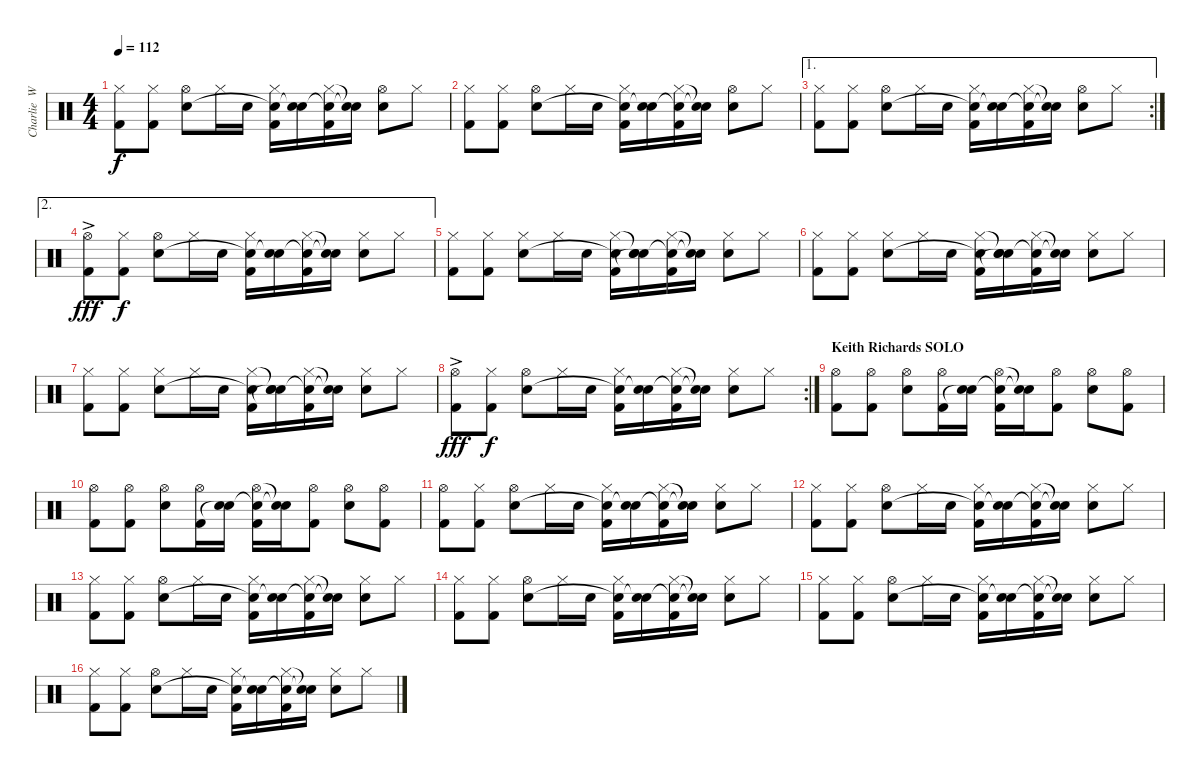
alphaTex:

\track ("Charlie  Watts" "Charlie  W") {instrument percussion}
\staff {score}
\articulation defaults
\ts (4 4)
\tempo 112
\clef neutral
\ks c
("Hi-Hat (closed)" "Kick (hit) 2").8{dy f} ("Hi-Hat (closed)" "Kick (hit) 2").8 ("Hi-Hat (open)" "Snare (hit) 2").8 "Hi-Hat (closed)".16 "Snare (hit) 2".16 ("Hi-Hat (closed)" "Snare (hit)"{t} "Kick (hit) 2").16 ("Snare (hit) 2" "Snare (hit)"{t}).16 ("Hi-Hat (closed)" "Snare (hit)"{t} "Kick (hit) 2").16 ("Snare (hit)"{t} "Snare (hit)"{t}).16 ("Hi-Hat (open)" "Snare (hit) 2").8 "Hi-Hat (closed)".8 |
("Hi-Hat (closed)" "Kick (hit) 2").8 ("Hi-Hat (closed)" "Kick (hit) 2").8 ("Hi-Hat (open)" "Snare (hit) 2").8 "Hi-Hat (closed)".16 "Snare (hit) 2".16 ("Hi-Hat (closed)" "Snare (hit)"{t} "Kick (hit) 2").16 ("Snare (hit) 2" "Snare (hit)"{t}).16 ("Hi-Hat (closed)" "Snare (hit)"{t} "Kick (hit) 2").16 ("Snare (hit)"{t} "Snare (hit)"{t}).16 ("Hi-Hat (open)" "Snare (hit) 2").8 "Hi-Hat (closed)".8 |
\ae 1
\rc 2
("Hi-Hat (closed)" "Kick (hit) 2").8 ("Hi-Hat (closed)" "Kick (hit) 2").8 ("Hi-Hat (open)" "Snare (hit) 2").8 "Hi-Hat (closed)".16 "Snare (hit) 2".16 ("Hi-Hat (closed)" "Snare (hit)"{t} "Kick (hit) 2").16 ("Snare (hit) 2" "Snare (hit)"{t}).16 ("Hi-Hat (closed)" "Snare (hit)"{t} "Kick (hit) 2").16 ("Snare (hit)"{t} "Snare (hit)"{t}).16 ("Hi-Hat (open)" "Snare (hit) 2").8 "Hi-Hat (closed)".8 |
\ae 2
("Hi-Hat (open)"{ac} "Kick (hit) 2"{ac}).8{dy fff} ("Hi-Hat (closed)" "Kick (hit) 2").8{dy f} ("Hi-Hat (open)" "Snare (hit) 2").8 "Hi-Hat (closed)".16 "Snare (hit) 2".16 ("Hi-Hat (closed)" "Snare (hit)"{t} "Kick (hit) 2").16 ("Snare (hit) 2" "Snare (hit)"{t}).16 ("Hi-Hat (closed)" "Snare (hit)"{t} "Kick (hit) 2").16 ("Snare (hit)"{t} "Snare (hit)"{t}).16 ("Hi-Hat (closed)" "Snare (hit) 2").8 "Hi-Hat (closed)".8 |
("Hi-Hat (closed)" "Kick (hit) 2").8 ("Hi-Hat (closed)" "Kick (hit) 2").8 ("Hi-Hat (closed)" "Snare (hit) 2").8 "Hi-Hat (closed)".16 "Snare (hit) 2".16 ("Hi-Hat (closed)" "Snare (hit)"{t} "Kick (hit) 2").16 ("Snare (hit)"{t} "Snare (hit) 2" "Snare (hit)"{t}).16 ("Hi-Hat (closed)" "Snare (hit)"{t} "Kick (hit) 2").16 ("Snare (hit)"{t} "Snare (hit)"{t}).16 ("Hi-Hat (closed)" "Snare (hit) 2").8 "Hi-Hat (closed)".8 |
("Hi-Hat (closed)" "Kick (hit) 2").8 ("Hi-Hat (closed)" "Kick (hit) 2").8 ("Hi-Hat (closed)" "Snare (hit) 2").8 "Hi-Hat (closed)".16 "Snare (hit) 2".16 ("Hi-Hat (closed)" "Snare (hit)"{t} "Kick (hit) 2").16 ("Snare (hit)"{t} "Snare (hit) 2" "Snare (hit)"{t}).16 ("Hi-Hat (closed)" "Snare (hit)"{t} "Kick (hit) 2").16 ("Snare (hit)"{t} "Snare (hit)"{t}).16 ("Hi-Hat (closed)" "Snare (hit) 2").8 "Hi-Hat (closed)".8 |
("Hi-Hat (closed)" "Kick (hit) 2").8 ("Hi-Hat (closed)" "Kick (hit) 2").8 ("Hi-Hat (closed)" "Snare (hit) 2").8 "Hi-Hat (closed)".16 "Snare (hit) 2".16 ("Hi-Hat (closed)" "Snare (hit)"{t} "Kick (hit) 2").16 ("Snare (hit)"{t} "Snare (hit) 2" "Snare (hit)"{t}).16 ("Hi-Hat (closed)" "Snare (hit)"{t} "Kick (hit) 2").16 ("Snare (hit)"{t} "Snare (hit)"{t}).16 ("Hi-Hat (closed)" "Snare (hit) 2").8 "Hi-Hat (closed)".8 |
\rc 2
("Hi-Hat (open)"{ac} "Kick (hit) 2"{ac}).8{dy fff} ("Hi-Hat (closed)" "Kick (hit) 2").8{dy f} ("Hi-Hat (open)" "Snare (hit) 2").8 "Hi-Hat (closed)".16 "Snare (hit) 2".16 ("Hi-Hat (closed)" "Snare (hit)"{t} "Kick (hit) 2").16 ("Snare (hit) 2" "Snare (hit)"{t}).16 ("Hi-Hat (closed)" "Snare (hit)"{t} "Kick (hit) 2").16 ("Snare (hit)"{t} "Snare (hit)"{t}).16 ("Hi-Hat (closed)" "Snare (hit) 2").8 "Hi-Hat (closed)".8 |
\section ("" "Keith Richards SOLO")
("Hi-Hat (open)" "Kick (hit) 2").8 ("Hi-Hat (open)" "Kick (hit) 2").8 ("Hi-Hat (open)" "Snare (hit) 2").8 ("Hi-Hat (open)" "Kick (hit) 2").16 ("Snare (hit) 2" "Snare (hit)"{t}).16 ("Hi-Hat (open)" "Snare (hit)"{t} "Kick (hit) 2").16 ("Snare (hit)"{t} "Snare (hit)"{t}).16 ("Hi-Hat (open)" "Kick (hit) 2").8 ("Hi-Hat (open)" "Snare (hit) 2").8 ("Hi-Hat (open)" "Kick (hit) 2").8 |
("Hi-Hat (open)" "Kick (hit) 2").8 ("Hi-Hat (open)" "Kick (hit) 2").8 ("Hi-Hat (open)" "Snare (hit) 2").8 ("Hi-Hat (open)" "Kick (hit) 2").16 ("Snare (hit) 2" "Snare (hit)"{t}).16 ("Hi-Hat (open)" "Snare (hit)"{t} "Kick (hit) 2").16 ("Snare (hit)"{t} "Snare (hit)"{t}).16 ("Hi-Hat (open)" "Kick (hit) 2").8 ("Hi-Hat (open)" "Snare (hit) 2").8 ("Hi-Hat (open)" "Kick (hit) 2").8 |
("Hi-Hat (open)" "Kick (hit) 2").8 ("Hi-Hat (closed)" "Kick (hit) 2").8 ("Hi-Hat (open)" "Snare (hit) 2").8 "Hi-Hat (closed)".16 "Snare (hit) 2".16 ("Hi-Hat (closed)" "Snare (hit)"{t} "Kick (hit) 2").16 ("Snare (hit) 2" "Snare (hit)"{t}).16 ("Hi-Hat (closed)" "Snare (hit)"{t} "Kick (hit) 2").16 ("Snare (hit)"{t} "Snare (hit)"{t}).16 ("Hi-Hat (closed)" "Snare (hit) 2").8 "Hi-Hat (closed)".8 |
("Hi-Hat (closed)" "Kick (hit) 2").8 ("Hi-Hat (closed)" "Kick (hit) 2").8 ("Hi-Hat (open)" "Snare (hit) 2").8 "Hi-Hat (closed)".16 "Snare (hit) 2".16 ("Hi-Hat (closed)" "Snare (hit)"{t} "Kick (hit) 2").16 ("Snare (hit) 2" "Snare (hit)"{t}).16 ("Hi-Hat (closed)" "Snare (hit)"{t} "Kick (hit) 2").16 ("Snare (hit)"{t} "Snare (hit)"{t}).16 ("Hi-Hat (closed)" "Snare (hit) 2").8 "Hi-Hat (closed)".8 |
("Hi-Hat (closed)" "Kick (hit) 2").8 ("Hi-Hat (closed)" "Kick (hit) 2").8 ("Hi-Hat (open)" "Snare (hit) 2").8 "Hi-Hat (closed)".16 "Snare (hit) 2".16 ("Hi-Hat (closed)" "Snare (hit)"{t} "Kick (hit) 2").16 ("Snare (hit) 2" "Snare (hit)"{t}).16 ("Hi-Hat (closed)" "Snare (hit)"{t} "Kick (hit) 2").16 ("Snare (hit)"{t} "Snare (hit)"{t}).16 ("Hi-Hat (closed)" "Snare (hit) 2").8 "Hi-Hat (closed)".8 |
("Hi-Hat (closed)" "Kick (hit) 2").8 ("Hi-Hat (closed)" "Kick (hit) 2").8 ("Hi-Hat (open)" "Snare (hit) 2").8 "Hi-Hat (closed)".16 "Snare (hit) 2".16 ("Hi-Hat (closed)" "Snare (hit)"{t} "Kick (hit) 2").16 ("Snare (hit) 2" "Snare (hit)"{t}).16 ("Hi-Hat (closed)" "Snare (hit)"{t} "Kick (hit) 2").16 ("Snare (hit)"{t} "Snare (hit)"{t}).16 ("Hi-Hat (closed)" "Snare (hit) 2").8 "Hi-Hat (closed)".8 |
("Hi-Hat (closed)" "Kick (hit) 2").8 ("Hi-Hat (closed)" "Kick (hit) 2").8 ("Hi-Hat (open)" "Snare (hit) 2").8 "Hi-Hat (closed)".16 "Snare (hit) 2".16 ("Hi-Hat (closed)" "Snare (hit)"{t} "Kick (hit) 2").16 ("Snare (hit) 2" "Snare (hit)"{t}).16 ("Hi-Hat (closed)" "Snare (hit)"{t} "Kick (hit) 2").16 ("Snare (hit)"{t} "Snare (hit)"{t}).16 ("Hi-Hat (closed)" "Snare (hit) 2").8 "Hi-Hat (closed)".8 |
("Hi-Hat (closed)" "Kick (hit) 2").8 ("Hi-Hat (closed)" "Kick (hit) 2").8 ("Hi-Hat (open)" "Snare (hit) 2").8 "Hi-Hat (closed)".16 "Snare (hit) 2".16 ("Hi-Hat (closed)" "Snare (hit)"{t} "Kick (hit) 2").16 ("Snare (hit) 2" "Snare (hit)"{t}).16 ("Hi-Hat (closed)" "Snare (hit)"{t} "Kick (hit) 2").16 ("Snare (hit)"{t} "Snare (hit)"{t}).16 ("Hi-Hat (closed)" "Snare (hit) 2").8 "Hi-Hat (closed)".8
